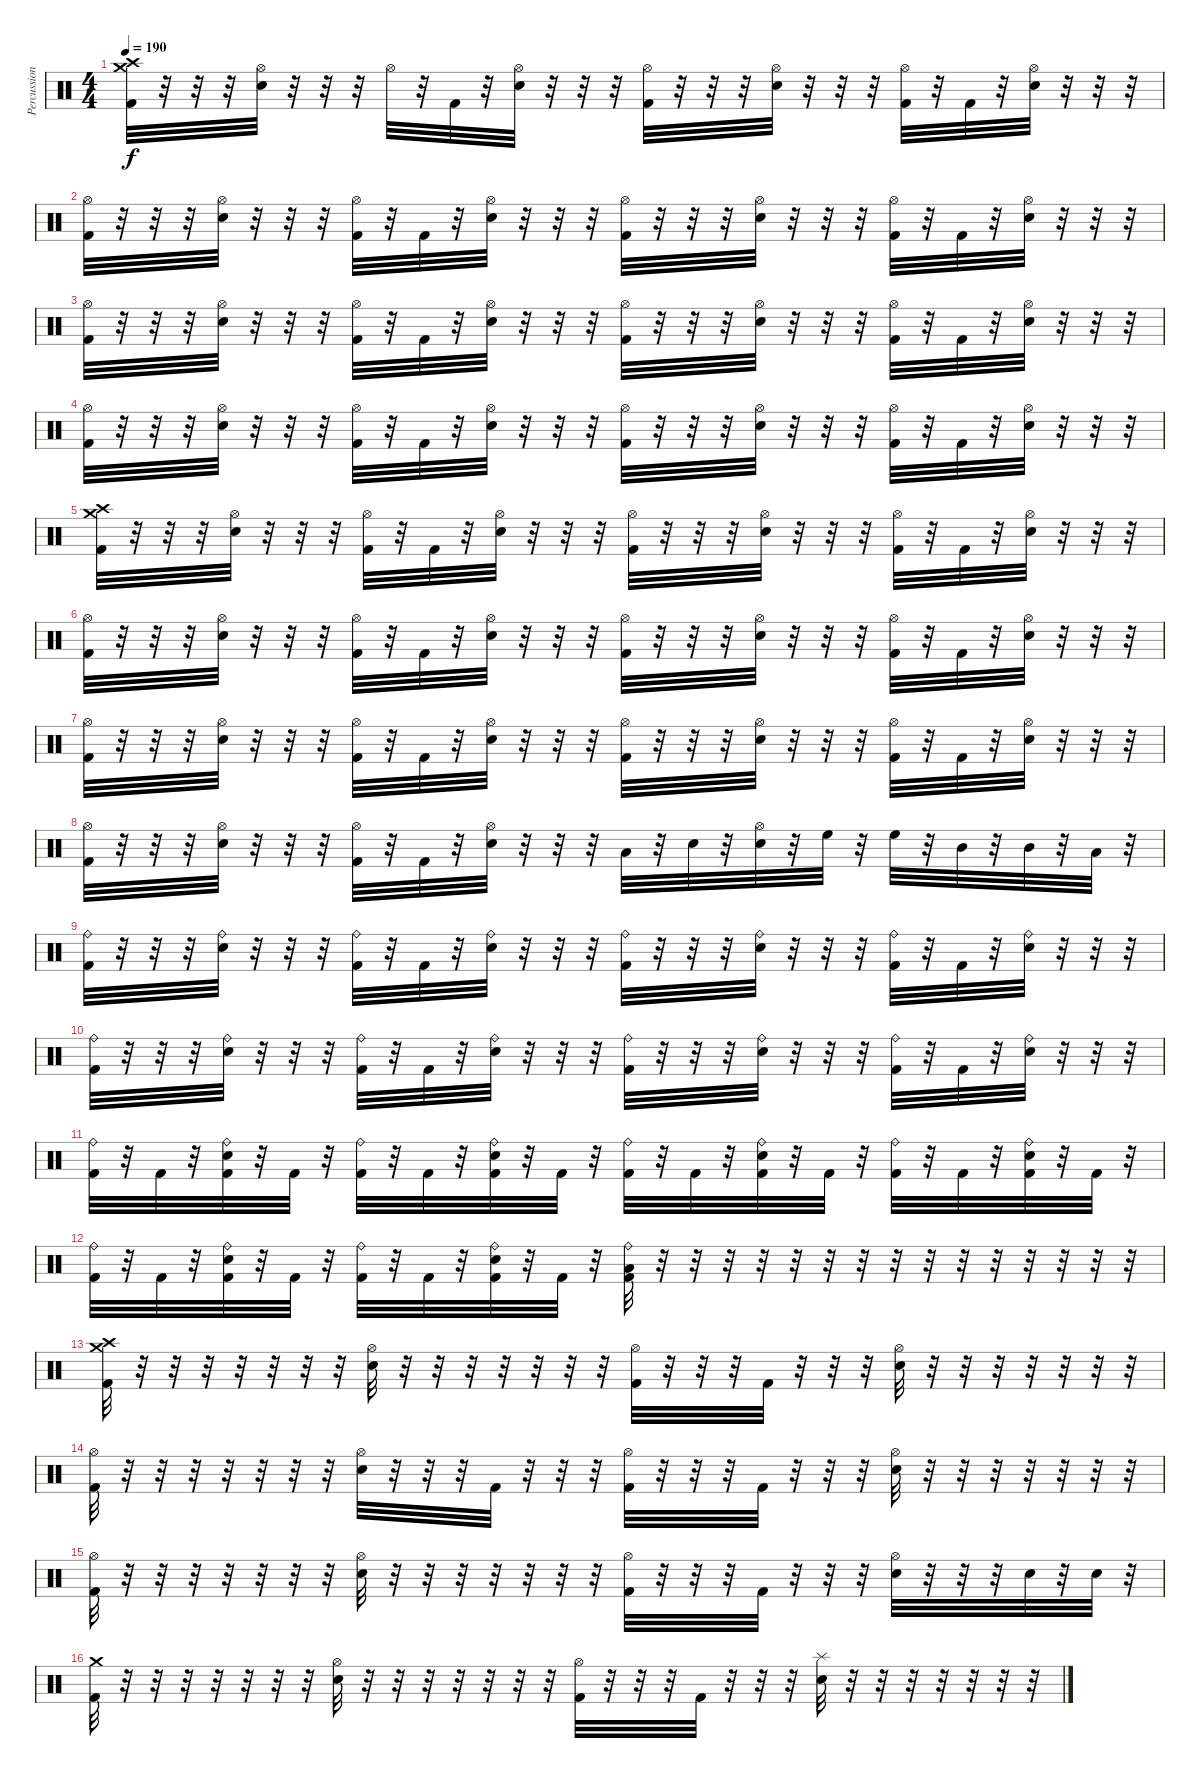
\track ("Percussion" "Percussion") {instrument percussion}
\staff {score}
\articulation defaults
\ts (4 4)
\tempo 190
\clef neutral
\ks c
("Crash high (hit)" "Crash medium (hit)" "Kick (hit) 2").32{dy f} r.32 r.32 r.32 ("Hi-Hat (open)" "Electric Snare (hit)").32 r.32 r.32 r.32 "Hi-Hat (open)".32 r.32 "Kick (hit) 2".32 r.32 ("Hi-Hat (open)" "Electric Snare (hit)").32 r.32 r.32 r.32 ("Hi-Hat (open)" "Kick (hit) 2").32 r.32 r.32 r.32 ("Hi-Hat (open)" "Electric Snare (hit)").32 r.32 r.32 r.32 ("Hi-Hat (open)" "Kick (hit) 2").32 r.32 "Kick (hit) 2".32 r.32 ("Hi-Hat (open)" "Electric Snare (hit)").32 r.32 r.32 r.32 |
("Hi-Hat (open)" "Kick (hit) 2").32 r.32 r.32 r.32 ("Hi-Hat (open)" "Electric Snare (hit)").32 r.32 r.32 r.32 ("Hi-Hat (open)" "Kick (hit) 2").32 r.32 "Kick (hit) 2".32 r.32 ("Hi-Hat (open)" "Electric Snare (hit)").32 r.32 r.32 r.32 ("Hi-Hat (open)" "Kick (hit) 2").32 r.32 r.32 r.32 ("Hi-Hat (open)" "Electric Snare (hit)").32 r.32 r.32 r.32 ("Hi-Hat (open)" "Kick (hit) 2").32 r.32 "Kick (hit) 2".32 r.32 ("Hi-Hat (open)" "Electric Snare (hit)").32 r.32 r.32 r.32 |
("Hi-Hat (open)" "Kick (hit) 2").32 r.32 r.32 r.32 ("Hi-Hat (open)" "Electric Snare (hit)").32 r.32 r.32 r.32 ("Hi-Hat (open)" "Kick (hit) 2").32 r.32 "Kick (hit) 2".32 r.32 ("Hi-Hat (open)" "Electric Snare (hit)").32 r.32 r.32 r.32 ("Hi-Hat (open)" "Kick (hit) 2").32 r.32 r.32 r.32 ("Hi-Hat (open)" "Electric Snare (hit)").32 r.32 r.32 r.32 ("Hi-Hat (open)" "Kick (hit) 2").32 r.32 "Kick (hit) 2".32 r.32 ("Hi-Hat (open)" "Electric Snare (hit)").32 r.32 r.32 r.32 |
("Hi-Hat (open)" "Kick (hit) 2").32 r.32 r.32 r.32 ("Hi-Hat (open)" "Electric Snare (hit)").32 r.32 r.32 r.32 ("Hi-Hat (open)" "Kick (hit) 2").32 r.32 "Kick (hit) 2".32 r.32 ("Hi-Hat (open)" "Electric Snare (hit)").32 r.32 r.32 r.32 ("Hi-Hat (open)" "Kick (hit) 2").32 r.32 r.32 r.32 ("Hi-Hat (open)" "Electric Snare (hit)").32 r.32 r.32 r.32 ("Hi-Hat (open)" "Kick (hit) 2").32 r.32 "Kick (hit) 2".32 r.32 ("Hi-Hat (open)" "Electric Snare (hit)").32 r.32 r.32 r.32 |
("Crash medium (hit)" "Crash high (hit)" "Kick (hit) 2").32 r.32 r.32 r.32 ("Hi-Hat (open)" "Electric Snare (hit)").32 r.32 r.32 r.32 ("Hi-Hat (open)" "Kick (hit) 2").32 r.32 "Kick (hit) 2".32 r.32 ("Hi-Hat (open)" "Electric Snare (hit)").32 r.32 r.32 r.32 ("Hi-Hat (open)" "Kick (hit) 2").32 r.32 r.32 r.32 ("Hi-Hat (open)" "Electric Snare (hit)").32 r.32 r.32 r.32 ("Hi-Hat (open)" "Kick (hit) 2").32 r.32 "Kick (hit) 2".32 r.32 ("Hi-Hat (open)" "Electric Snare (hit)").32 r.32 r.32 r.32 |
("Hi-Hat (open)" "Kick (hit) 2").32 r.32 r.32 r.32 ("Hi-Hat (open)" "Electric Snare (hit)").32 r.32 r.32 r.32 ("Hi-Hat (open)" "Kick (hit) 2").32 r.32 "Kick (hit) 2".32 r.32 ("Hi-Hat (open)" "Electric Snare (hit)").32 r.32 r.32 r.32 ("Hi-Hat (open)" "Kick (hit) 2").32 r.32 r.32 r.32 ("Hi-Hat (open)" "Electric Snare (hit)").32 r.32 r.32 r.32 ("Hi-Hat (open)" "Kick (hit) 2").32 r.32 "Kick (hit) 2".32 r.32 ("Hi-Hat (open)" "Electric Snare (hit)").32 r.32 r.32 r.32 |
("Hi-Hat (open)" "Kick (hit) 2").32 r.32 r.32 r.32 ("Hi-Hat (open)" "Electric Snare (hit)").32 r.32 r.32 r.32 ("Hi-Hat (open)" "Kick (hit) 2").32 r.32 "Kick (hit) 2".32 r.32 ("Hi-Hat (open)" "Electric Snare (hit)").32 r.32 r.32 r.32 ("Hi-Hat (open)" "Kick (hit) 2").32 r.32 r.32 r.32 ("Hi-Hat (open)" "Electric Snare (hit)").32 r.32 r.32 r.32 ("Hi-Hat (open)" "Kick (hit) 2").32 r.32 "Kick (hit) 2".32 r.32 ("Hi-Hat (open)" "Electric Snare (hit)").32 r.32 r.32 r.32 |
("Hi-Hat (open)" "Kick (hit) 2").32 r.32 r.32 r.32 ("Hi-Hat (open)" "Electric Snare (hit)").32 r.32 r.32 r.32 ("Hi-Hat (open)" "Kick (hit) 2").32 r.32 "Kick (hit) 2".32 r.32 ("Hi-Hat (open)" "Electric Snare (hit)").32 r.32 r.32 r.32 "Low Floor Tom (hit)".32 r.32 "Electric Snare (hit)".32 r.32 ("Hi-Hat (open)" "Electric Snare (hit)").32 r.32 "High Floor Tom (hit)".32 r.32 "High Floor Tom (hit)".32 r.32 "Mid Tom (hit)".32 r.32 "Mid Tom (hit)".32 r.32 "Low Floor Tom (hit)".32 r.32 |
("Ride (bell)" "Kick (hit) 2").32 r.32 r.32 r.32 ("Ride (bell)" "Electric Snare (hit)").32 r.32 r.32 r.32 ("Ride (bell)" "Kick (hit) 2").32 r.32 "Kick (hit) 2".32 r.32 ("Ride (bell)" "Electric Snare (hit)").32 r.32 r.32 r.32 ("Ride (bell)" "Kick (hit) 2").32 r.32 r.32 r.32 ("Ride (bell)" "Electric Snare (hit)").32 r.32 r.32 r.32 ("Ride (bell)" "Kick (hit) 2").32 r.32 "Kick (hit) 2".32 r.32 ("Ride (bell)" "Electric Snare (hit)").32 r.32 r.32 r.32 |
("Ride (bell)" "Kick (hit) 2").32 r.32 r.32 r.32 ("Ride (bell)" "Electric Snare (hit)").32 r.32 r.32 r.32 ("Ride (bell)" "Kick (hit) 2").32 r.32 "Kick (hit) 2".32 r.32 ("Ride (bell)" "Electric Snare (hit)").32 r.32 r.32 r.32 ("Ride (bell)" "Kick (hit) 2").32 r.32 r.32 r.32 ("Ride (bell)" "Electric Snare (hit)").32 r.32 r.32 r.32 ("Ride (bell)" "Kick (hit) 2").32 r.32 "Kick (hit) 2".32 r.32 ("Ride (bell)" "Electric Snare (hit)").32 r.32 r.32 r.32 |
("Ride (bell)" "Kick (hit) 2").32 r.32 "Kick (hit) 2".32 r.32 ("Kick (hit) 2" "Ride (bell)" "Electric Snare (hit)").32 r.32 "Kick (hit) 2".32 r.32 ("Ride (bell)" "Kick (hit) 2").32 r.32 "Kick (hit) 2".32 r.32 ("Kick (hit) 2" "Ride (bell)" "Electric Snare (hit)").32 r.32 "Kick (hit) 2".32 r.32 ("Ride (bell)" "Kick (hit) 2").32 r.32 "Kick (hit) 2".32 r.32 ("Kick (hit) 2" "Ride (bell)" "Electric Snare (hit)").32 r.32 "Kick (hit) 2".32 r.32 ("Ride (bell)" "Kick (hit) 2").32 r.32 "Kick (hit) 2".32 r.32 ("Kick (hit) 2" "Ride (bell)" "Electric Snare (hit)").32 r.32 "Kick (hit) 2".32 r.32 |
("Ride (bell)" "Kick (hit) 2").32 r.32 "Kick (hit) 2".32 r.32 ("Kick (hit) 2" "Ride (bell)" "Electric Snare (hit)").32 r.32 "Kick (hit) 2".32 r.32 ("Ride (bell)" "Kick (hit) 2").32 r.32 "Kick (hit) 2".32 r.32 ("Kick (hit) 2" "Ride (bell)" "Electric Snare (hit)").32 r.32 "Kick (hit) 2".32 r.32 ("Low Floor Tom (hit)" "Ride (bell)" "Kick (hit) 2").32 r.32 r.32 r.32 r.32 r.32 r.32 r.32 r.32 r.32 r.32 r.32 r.32 r.32 r.32 r.32 |
("Crash medium (hit)" "Crash high (hit)" "Kick (hit) 2").32 r.32 r.32 r.32 r.32 r.32 r.32 r.32 ("Hi-Hat (open)" "Electric Snare (hit)").32 r.32 r.32 r.32 r.32 r.32 r.32 r.32 ("Hi-Hat (open)" "Kick (hit) 2").32 r.32 r.32 r.32 "Kick (hit) 2".32 r.32 r.32 r.32 ("Hi-Hat (open)" "Electric Snare (hit)").32 r.32 r.32 r.32 r.32 r.32 r.32 r.32 |
("Hi-Hat (open)" "Kick (hit) 2").32 r.32 r.32 r.32 r.32 r.32 r.32 r.32 ("Hi-Hat (open)" "Electric Snare (hit)").32 r.32 r.32 r.32 "Kick (hit) 2".32 r.32 r.32 r.32 ("Hi-Hat (open)" "Kick (hit) 2").32 r.32 r.32 r.32 "Kick (hit) 2".32 r.32 r.32 r.32 ("Hi-Hat (open)" "Electric Snare (hit)").32 r.32 r.32 r.32 r.32 r.32 r.32 r.32 |
("Hi-Hat (open)" "Kick (hit) 2").32 r.32 r.32 r.32 r.32 r.32 r.32 r.32 ("Hi-Hat (open)" "Electric Snare (hit)").32 r.32 r.32 r.32 r.32 r.32 r.32 r.32 ("Hi-Hat (open)" "Kick (hit) 2").32 r.32 r.32 r.32 "Kick (hit) 2".32 r.32 r.32 r.32 ("Hi-Hat (open)" "Electric Snare (hit)").32 r.32 r.32 r.32 "Electric Snare (hit)".32 r.32 "Electric Snare (hit)".32 r.32 |
("Crash medium (hit)" "Kick (hit) 2").32 r.32 r.32 r.32 r.32 r.32 r.32 r.32 ("Hi-Hat (open)" "Electric Snare (hit)").32 r.32 r.32 r.32 r.32 r.32 r.32 r.32 ("Hi-Hat (open)" "Kick (hit) 2").32 r.32 r.32 r.32 "Kick (hit) 2".32 r.32 r.32 r.32 ("Splash (hit)" "Electric Snare (hit)").32 r.32 r.32 r.32 r.32 r.32 r.32 r.32
